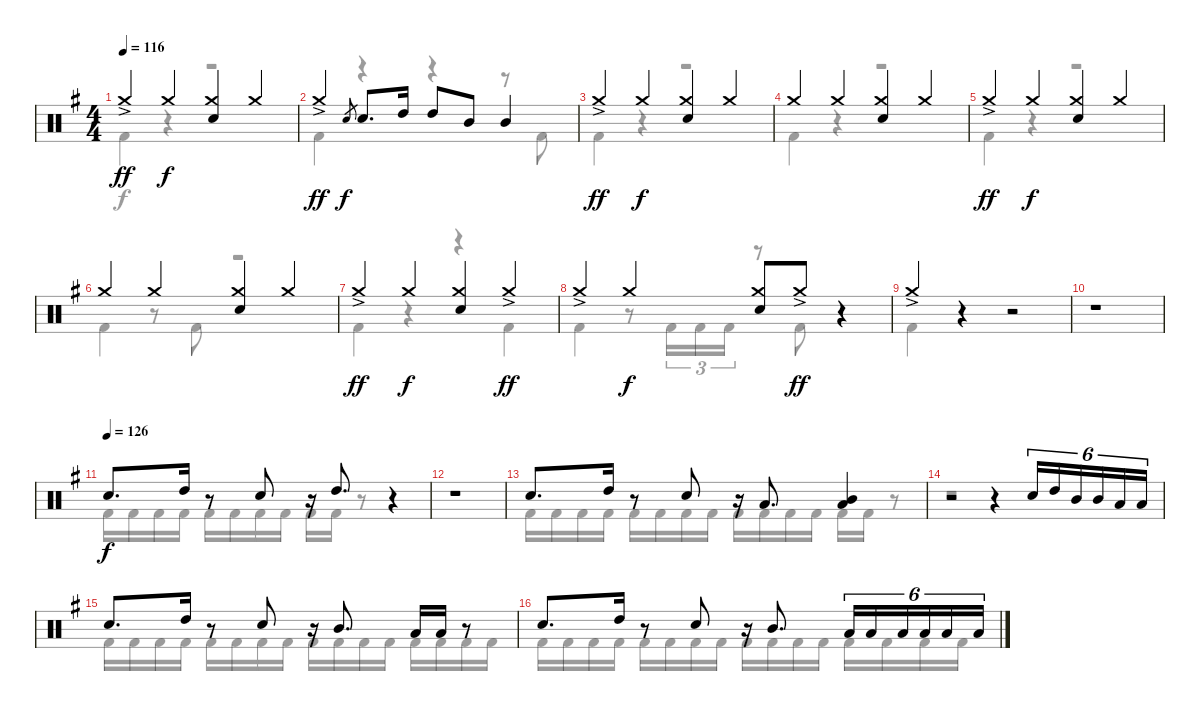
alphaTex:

\track "" {instrument percussion}
\staff {score}
\articulation defaults
\voice
\ts (4 4)
\tempo 116
\clef neutral
\ks g "Crash medium (hit)"{ac}.4{dy ff} "Crash medium (hit)".4{dy f}
("Electric Snare (hit)" "Crash medium (hit)").4 "Crash medium (hit)".4 |
"Crash medium (hit)"{ac}.4{dy ff} "Electric Snare (hit)".8{gr dy f} "Electric Snare (hit)".8{d} "High Tom (hit)".16 "High Tom (hit)".8 "Mid Tom (hit)".8 "Mid Tom (hit)".4 |
"Crash medium (hit)"{ac}.4{dy ff} "Crash medium (hit)".4{dy f} ("Electric Snare (hit)" "Crash medium (hit)").4 "Crash medium (hit)".4 |
"Crash medium (hit)".4 "Crash medium (hit)".4 ("Electric Snare (hit)" "Crash medium (hit)").4 "Crash medium (hit)".4 |
"Crash medium (hit)"{ac}.4{dy ff} "Crash medium (hit)".4{dy f} ("Electric Snare (hit)" "Crash medium (hit)").4 "Crash medium (hit)".4 |
"Crash medium (hit)".4 "Crash medium (hit)".4 ("Electric Snare (hit)" "Crash medium (hit)").4 "Crash medium (hit)".4 |
"Crash medium (hit)"{ac}.4{dy ff} "Crash medium (hit)".4{dy f} ("Electric Snare (hit)" "Crash medium (hit)").4 "Crash medium (hit)"{ac}.4{dy ff} |
"Crash medium (hit)"{ac}.4 "Crash medium (hit)".4{dy f} ("Electric Snare (hit)" "Crash medium (hit)").8 "Crash medium (hit)"{ac}.8{dy ff} r.4 |
"Crash medium (hit)"{ac}.4 r.4 r.2 |
r.1 |
\tempo (126)
"Electric Snare (hit)".8{d dy f} "High Tom (hit)".16 r.8 "Electric Snare (hit)".8 r.16 "High Tom (hit)".8{d} r.4 |
r.1 |
"Electric Snare (hit)".8{d} "High Tom (hit)".16 r.8 "Electric Snare (hit)".8 r.16 "Low Tom (hit)".8{d} ("Mid Tom (hit)" "Low Tom (hit)").4 |
r.2 r.4 "Electric Snare (hit)".16{tu (6 4)} "High Tom (hit)".16{tu (6 4)} "Mid Tom (hit)".16{tu (6 4)} "Mid Tom (hit)".16{tu (6 4)} "Low Tom (hit)".16{tu (6 4)} "Low Tom (hit)".16{tu (6 4)} |
"Electric Snare (hit)".8{d} "High Tom (hit)".16 r.8 "Electric Snare (hit)".8 r.16 "Mid Tom (hit)".8{d} "Low Tom (hit)".16 "Low Tom (hit)".16 r.8 |
"Electric Snare (hit)".8{d} "High Tom (hit)".16 r.8 "Electric Snare (hit)".8 r.16 "Mid Tom (hit)".8{d} "Low Tom (hit)".16{tu (6 4)} "Low Tom (hit)".16{tu (6 4)} "Low Tom (hit)".16{tu (6 4)} "Low Tom (hit)".16{tu (6 4)} "Low Tom (hit)".16{tu (6 4)} "Low Tom (hit)".16{tu (6 4)}
\voice
\clef neutral
\ottava regular
\simile none
\ks g "Kick (hit) 2".4{dy f}
r.4 r.2 |
"Kick (hit) 2".4 r.4 r.4 r.8 "Kick (hit) 2".8 |
"Kick (hit) 2".4 r.4 r.2 |
"Kick (hit) 2".4 r.4 r.2 |
"Kick (hit) 2".4 r.4 r.2 |
"Kick (hit) 2".4 r.8 "Kick (hit) 2".8 r.2 |
"Kick (hit) 2".4 r.4 r.4 "Kick (hit) 2".4 |
"Kick (hit) 2".4 r.8 "Kick (hit) 2".16{tu (3 2)} "Kick (hit) 2".16{tu (3 2)} "Kick (hit) 2".16{tu (3 2)} r.8 "Kick (hit) 2".8 r.4 |
"Kick (hit) 2".4 r.4 r.2 |
r.1 |
"Kick (hit) 2".16 "Kick (hit) 2".16 "Kick (hit) 2".16 "Kick (hit) 2".16 "Kick (hit) 2".16 "Kick (hit) 2".16 "Kick (hit) 2".16 "Kick (hit) 2".16 "Kick (hit) 2".16 "Kick (hit) 2".16 r.8 r.4 |
r.1 |
"Kick (hit) 2".16 "Kick (hit) 2".16 "Kick (hit) 2".16 "Kick (hit) 2".16 "Kick (hit) 2".16 "Kick (hit) 2".16 "Kick (hit) 2".16 "Kick (hit) 2".16 "Kick (hit) 2".16 "Kick (hit) 2".16 "Kick (hit) 2".16 "Kick (hit) 2".16 "Kick (hit) 2".16 "Kick (hit) 2".16 r.8 |
r.1 |
"Kick (hit) 2".16 "Kick (hit) 2".16 "Kick (hit) 2".16 "Kick (hit) 2".16 "Kick (hit) 2".16 "Kick (hit) 2".16 "Kick (hit) 2".16 "Kick (hit) 2".16 "Kick (hit) 2".16 "Kick (hit) 2".16 "Kick (hit) 2".16 "Kick (hit) 2".16 "Kick (hit) 2".16 "Kick (hit) 2".16 "Kick (hit) 2".16 "Kick (hit) 2".16 |
"Kick (hit) 2".16 "Kick (hit) 2".16 "Kick (hit) 2".16 "Kick (hit) 2".16 "Kick (hit) 2".16 "Kick (hit) 2".16 "Kick (hit) 2".16 "Kick (hit) 2".16 "Kick (hit) 2".16 "Kick (hit) 2".16 "Kick (hit) 2".16 "Kick (hit) 2".16 "Kick (hit) 2".16 "Kick (hit) 2".16 "Kick (hit) 2".16 "Kick (hit) 2".16
